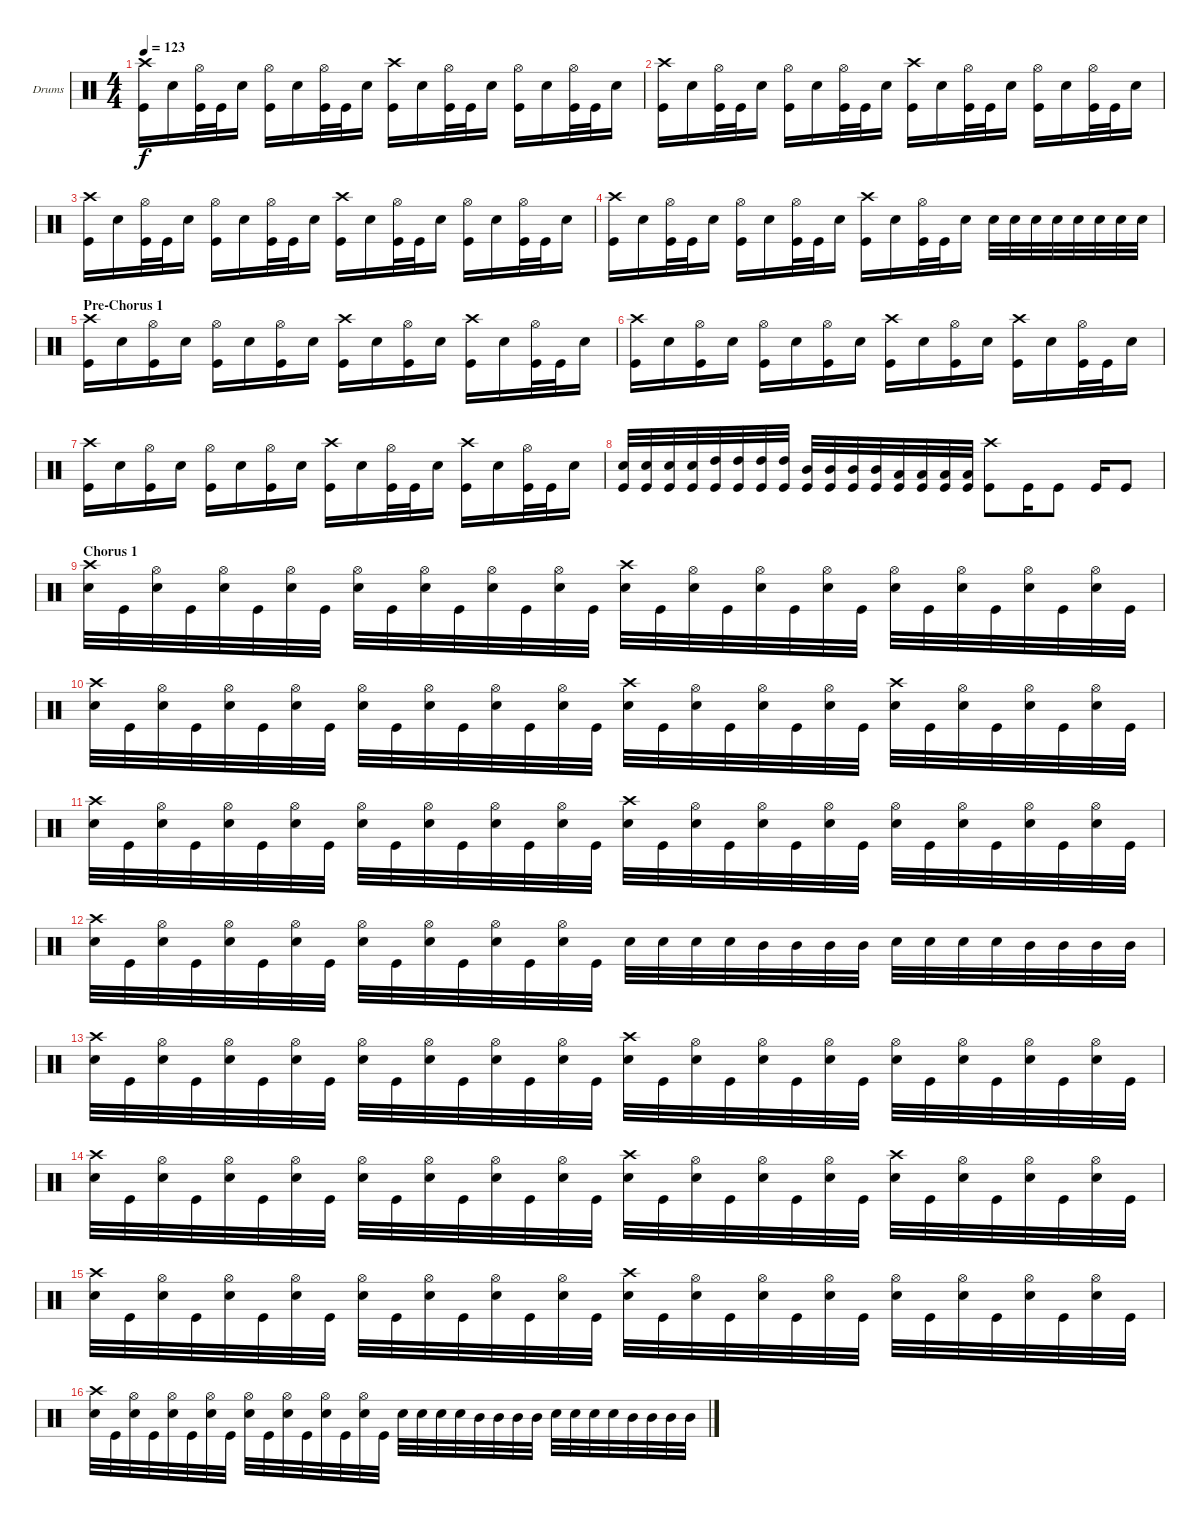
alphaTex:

\defaultSystemsLayout 4
\bracketExtendMode groupsimilarinstruments
\firstSystemTrackNameOrientation horizontal
\otherSystemsTrackNameOrientation horizontal
\track ("Drumkit" "Drums") {instrument percussion}
\staff {score}
\articulation defaults
\ts (4 4)
\tempo 123
\clef neutral
\scale
0.333333
\ks c
("Kick (hit)" "Crash high (hit)").16{dy f} "Snare (hit) 2".16 ("Kick (hit)" "Hi-Hat (open)").32 "Kick (hit)".32 "Snare (hit) 2".16 ("Kick (hit)" "Hi-Hat (open)").16 "Snare (hit) 2".16 ("Kick (hit)" "Hi-Hat (open)").32 "Kick (hit)".32 "Snare (hit) 2".16 ("Kick (hit)" "Crash high (hit)").16 "Snare (hit) 2".16 ("Kick (hit)" "Hi-Hat (open)").32 "Kick (hit)".32 "Snare (hit) 2".16 ("Kick (hit)" "Hi-Hat (open)").16 "Snare (hit) 2".16 ("Kick (hit)" "Hi-Hat (open)").32 "Kick (hit)".32 "Snare (hit) 2".16 |
\scale
0.333333 ("Kick (hit)" "Crash high (hit)").16 "Snare (hit) 2".16 ("Kick (hit)" "Hi-Hat (open)").32 "Kick (hit)".32 "Snare (hit) 2".16 ("Kick (hit)" "Hi-Hat (open)").16 "Snare (hit) 2".16 ("Kick (hit)" "Hi-Hat (open)").32 "Kick (hit)".32 "Snare (hit) 2".16 ("Kick (hit)" "Crash high (hit)").16 "Snare (hit) 2".16 ("Kick (hit)" "Hi-Hat (open)").32 "Kick (hit)".32 "Snare (hit) 2".16 ("Kick (hit)" "Hi-Hat (open)").16 "Snare (hit) 2".16 ("Kick (hit)" "Hi-Hat (open)").32 "Kick (hit)".32 "Snare (hit) 2".16 |
\scale
0.333333 ("Kick (hit)" "Crash high (hit)").16 "Snare (hit) 2".16 ("Kick (hit)" "Hi-Hat (open)").32 "Kick (hit)".32 "Snare (hit) 2".16 ("Kick (hit)" "Hi-Hat (open)").16 "Snare (hit) 2".16 ("Kick (hit)" "Hi-Hat (open)").32 "Kick (hit)".32 "Snare (hit) 2".16 ("Kick (hit)" "Crash high (hit)").16 "Snare (hit) 2".16 ("Kick (hit)" "Hi-Hat (open)").32 "Kick (hit)".32 "Snare (hit) 2".16 ("Kick (hit)" "Hi-Hat (open)").16 "Snare (hit) 2".16 ("Kick (hit)" "Hi-Hat (open)").32 "Kick (hit)".32 "Snare (hit) 2".16 |
\scale
0.333333 ("Kick (hit)" "Crash high (hit)").16 "Snare (hit) 2".16 ("Kick (hit)" "Hi-Hat (open)").32 "Kick (hit)".32 "Snare (hit) 2".16 ("Kick (hit)" "Hi-Hat (open)").16 "Snare (hit) 2".16 ("Kick (hit)" "Hi-Hat (open)").32 "Kick (hit)".32 "Snare (hit) 2".16 ("Kick (hit)" "Crash high (hit)").16 "Snare (hit) 2".16 ("Kick (hit)" "Hi-Hat (open)").32 "Kick (hit)".32 "Snare (hit) 2".16 "Snare (hit) 2".32 "Snare (hit) 2".32 "Snare (hit) 2".32 "Snare (hit) 2".32 "Snare (hit) 2".32 "Snare (hit) 2".32 "Snare (hit) 2".32 "Snare (hit) 2".32 |
\section ("" "Pre-Chorus 1")
\scale
0.333333 ("Kick (hit)" "Crash high (hit)").16 "Snare (hit) 2".16 ("Kick (hit)" "Hi-Hat (open)").16 "Snare (hit) 2".16 ("Kick (hit)" "Hi-Hat (open)").16 "Snare (hit) 2".16 ("Kick (hit)" "Hi-Hat (open)").16 "Snare (hit) 2".16 ("Kick (hit)" "Crash high (hit)").16 "Snare (hit) 2".16 ("Kick (hit)" "Hi-Hat (open)").16 "Snare (hit) 2".16 ("Kick (hit)" "Crash high (hit)").16 "Snare (hit) 2".16 ("Kick (hit)" "Hi-Hat (open)").32 "Kick (hit)".32 "Snare (hit) 2".16 |
\scale
0.333333 ("Kick (hit)" "Crash high (hit)").16 "Snare (hit) 2".16 ("Kick (hit)" "Hi-Hat (open)").16 "Snare (hit) 2".16 ("Kick (hit)" "Hi-Hat (open)").16 "Snare (hit) 2".16 ("Kick (hit)" "Hi-Hat (open)").16 "Snare (hit) 2".16 ("Kick (hit)" "Crash high (hit)").16 "Snare (hit) 2".16 ("Kick (hit)" "Hi-Hat (open)").16 "Snare (hit) 2".16 ("Kick (hit)" "Crash high (hit)").16 "Snare (hit) 2".16 ("Kick (hit)" "Hi-Hat (open)").32 "Kick (hit)".32 "Snare (hit) 2".16 |
\scale
0.333333 ("Kick (hit)" "Crash high (hit)").16 "Snare (hit) 2".16 ("Kick (hit)" "Hi-Hat (open)").16 "Snare (hit) 2".16 ("Kick (hit)" "Hi-Hat (open)").16 "Snare (hit) 2".16 ("Kick (hit)" "Hi-Hat (open)").16 "Snare (hit) 2".16 ("Kick (hit)" "Crash high (hit)").16 "Snare (hit) 2".16 ("Kick (hit)" "Hi-Hat (open)").32 "Kick (hit)".32 "Snare (hit) 2".16 ("Kick (hit)" "Crash high (hit)").16 "Snare (hit) 2".16 ("Kick (hit)" "Hi-Hat (open)").32 "Kick (hit)".32 "Snare (hit) 2".16 |
\scale
0.333333 ("Kick (hit)" "Snare (hit) 2").32 ("Kick (hit)" "Snare (hit) 2").32 ("Kick (hit)" "Snare (hit) 2").32 ("Kick (hit)" "Snare (hit) 2").32 ("Kick (hit)" "High Tom (hit)").32 ("Kick (hit)" "High Tom (hit)").32 ("Kick (hit)" "High Tom (hit)").32 ("Kick (hit)" "High Tom (hit)").32 ("Kick (hit)" "Mid Tom (hit)").32 ("Kick (hit)" "Mid Tom (hit)").32 ("Kick (hit)" "Mid Tom (hit)").32 ("Kick (hit)" "Mid Tom (hit)").32 ("Kick (hit)" "Low Tom (hit)").32 ("Kick (hit)" "Low Tom (hit)").32 ("Kick (hit)" "Low Tom (hit)").32 ("Kick (hit)" "Low Tom (hit)").32 ("Kick (hit)" "Crash high (hit)").8 "Kick (hit)".16 "Kick (hit)".8 "Kick (hit)".16 "Kick (hit)".8 |
\section ("" "Chorus 1")
\scale
0.333333 ("Snare (hit) 2" "Crash high (hit)").32 "Kick (hit)".32 ("Snare (hit) 2" "Hi-Hat (open)").32 "Kick (hit)".32 ("Snare (hit) 2" "Hi-Hat (open)").32 "Kick (hit)".32 ("Snare (hit) 2" "Hi-Hat (open)").32 "Kick (hit)".32 ("Snare (hit) 2" "Hi-Hat (open)").32 "Kick (hit)".32 ("Snare (hit) 2" "Hi-Hat (open)").32 "Kick (hit)".32 ("Snare (hit) 2" "Hi-Hat (open)").32 "Kick (hit)".32 ("Snare (hit) 2" "Hi-Hat (open)").32 "Kick (hit)".32 ("Snare (hit) 2" "Crash high (hit)").32 "Kick (hit)".32 ("Snare (hit) 2" "Hi-Hat (open)").32 "Kick (hit)".32 ("Snare (hit) 2" "Hi-Hat (open)").32 "Kick (hit)".32 ("Snare (hit) 2" "Hi-Hat (open)").32 "Kick (hit)".32 ("Snare (hit) 2" "Hi-Hat (open)").32 "Kick (hit)".32 ("Snare (hit) 2" "Hi-Hat (open)").32 "Kick (hit)".32 ("Snare (hit) 2" "Hi-Hat (open)").32 "Kick (hit)".32 ("Snare (hit) 2" "Hi-Hat (open)").32 "Kick (hit)".32 |
\scale
0.333333 ("Snare (hit) 2" "Crash high (hit)").32 "Kick (hit)".32 ("Snare (hit) 2" "Hi-Hat (open)").32 "Kick (hit)".32 ("Snare (hit) 2" "Hi-Hat (open)").32 "Kick (hit)".32 ("Snare (hit) 2" "Hi-Hat (open)").32 "Kick (hit)".32 ("Snare (hit) 2" "Hi-Hat (open)").32 "Kick (hit)".32 ("Snare (hit) 2" "Hi-Hat (open)").32 "Kick (hit)".32 ("Snare (hit) 2" "Hi-Hat (open)").32 "Kick (hit)".32 ("Snare (hit) 2" "Hi-Hat (open)").32 "Kick (hit)".32 ("Snare (hit) 2" "Crash high (hit)").32 "Kick (hit)".32 ("Snare (hit) 2" "Hi-Hat (open)").32 "Kick (hit)".32 ("Snare (hit) 2" "Hi-Hat (open)").32 "Kick (hit)".32 ("Snare (hit) 2" "Hi-Hat (open)").32 "Kick (hit)".32 ("Snare (hit) 2" "Crash high (hit)").32 "Kick (hit)".32 ("Snare (hit) 2" "Hi-Hat (open)").32 "Kick (hit)".32 ("Snare (hit) 2" "Hi-Hat (open)").32 "Kick (hit)".32 ("Snare (hit) 2" "Hi-Hat (open)").32 "Kick (hit)".32 |
\scale
0.333333 ("Snare (hit) 2" "Crash high (hit)").32 "Kick (hit)".32 ("Snare (hit) 2" "Hi-Hat (open)").32 "Kick (hit)".32 ("Snare (hit) 2" "Hi-Hat (open)").32 "Kick (hit)".32 ("Snare (hit) 2" "Hi-Hat (open)").32 "Kick (hit)".32 ("Snare (hit) 2" "Hi-Hat (open)").32 "Kick (hit)".32 ("Snare (hit) 2" "Hi-Hat (open)").32 "Kick (hit)".32 ("Snare (hit) 2" "Hi-Hat (open)").32 "Kick (hit)".32 ("Snare (hit) 2" "Hi-Hat (open)").32 "Kick (hit)".32 ("Snare (hit) 2" "Crash high (hit)").32 "Kick (hit)".32 ("Snare (hit) 2" "Hi-Hat (open)").32 "Kick (hit)".32 ("Snare (hit) 2" "Hi-Hat (open)").32 "Kick (hit)".32 ("Snare (hit) 2" "Hi-Hat (open)").32 "Kick (hit)".32 ("Snare (hit) 2" "Hi-Hat (open)").32 "Kick (hit)".32 ("Snare (hit) 2" "Hi-Hat (open)").32 "Kick (hit)".32 ("Snare (hit) 2" "Hi-Hat (open)").32 "Kick (hit)".32 ("Snare (hit) 2" "Hi-Hat (open)").32 "Kick (hit)".32 |
\scale
0.333333 ("Snare (hit) 2" "Crash high (hit)").32 "Kick (hit)".32 ("Snare (hit) 2" "Hi-Hat (open)").32 "Kick (hit)".32 ("Snare (hit) 2" "Hi-Hat (open)").32 "Kick (hit)".32 ("Snare (hit) 2" "Hi-Hat (open)").32 "Kick (hit)".32 ("Snare (hit) 2" "Hi-Hat (open)").32 "Kick (hit)".32 ("Snare (hit) 2" "Hi-Hat (open)").32 "Kick (hit)".32 ("Snare (hit) 2" "Hi-Hat (open)").32 "Kick (hit)".32 ("Snare (hit) 2" "Hi-Hat (open)").32 "Kick (hit)".32 "Snare (hit) 2".32 "Snare (hit) 2".32 "Snare (hit) 2".32 "Snare (hit) 2".32 "Mid Tom (hit)".32 "Mid Tom (hit)".32 "Mid Tom (hit)".32 "Mid Tom (hit)".32 "Snare (hit) 2".32 "Snare (hit) 2".32 "Snare (hit) 2".32 "Snare (hit) 2".32 "Mid Tom (hit)".32 "Mid Tom (hit)".32 "Mid Tom (hit)".32 "Mid Tom (hit)".32 |
\scale
0.333333 ("Snare (hit) 2" "Crash high (hit)").32 "Kick (hit)".32 ("Snare (hit) 2" "Hi-Hat (open)").32 "Kick (hit)".32 ("Snare (hit) 2" "Hi-Hat (open)").32 "Kick (hit)".32 ("Snare (hit) 2" "Hi-Hat (open)").32 "Kick (hit)".32 ("Snare (hit) 2" "Hi-Hat (open)").32 "Kick (hit)".32 ("Snare (hit) 2" "Hi-Hat (open)").32 "Kick (hit)".32 ("Snare (hit) 2" "Hi-Hat (open)").32 "Kick (hit)".32 ("Snare (hit) 2" "Hi-Hat (open)").32 "Kick (hit)".32 ("Snare (hit) 2" "Crash high (hit)").32 "Kick (hit)".32 ("Snare (hit) 2" "Hi-Hat (open)").32 "Kick (hit)".32 ("Snare (hit) 2" "Hi-Hat (open)").32 "Kick (hit)".32 ("Snare (hit) 2" "Hi-Hat (open)").32 "Kick (hit)".32 ("Snare (hit) 2" "Hi-Hat (open)").32 "Kick (hit)".32 ("Snare (hit) 2" "Hi-Hat (open)").32 "Kick (hit)".32 ("Snare (hit) 2" "Hi-Hat (open)").32 "Kick (hit)".32 ("Snare (hit) 2" "Hi-Hat (open)").32 "Kick (hit)".32 |
\scale
0.333333 ("Snare (hit) 2" "Crash high (hit)").32 "Kick (hit)".32 ("Snare (hit) 2" "Hi-Hat (open)").32 "Kick (hit)".32 ("Snare (hit) 2" "Hi-Hat (open)").32 "Kick (hit)".32 ("Snare (hit) 2" "Hi-Hat (open)").32 "Kick (hit)".32 ("Snare (hit) 2" "Hi-Hat (open)").32 "Kick (hit)".32 ("Snare (hit) 2" "Hi-Hat (open)").32 "Kick (hit)".32 ("Snare (hit) 2" "Hi-Hat (open)").32 "Kick (hit)".32 ("Snare (hit) 2" "Hi-Hat (open)").32 "Kick (hit)".32 ("Snare (hit) 2" "Crash high (hit)").32 "Kick (hit)".32 ("Snare (hit) 2" "Hi-Hat (open)").32 "Kick (hit)".32 ("Snare (hit) 2" "Hi-Hat (open)").32 "Kick (hit)".32 ("Snare (hit) 2" "Hi-Hat (open)").32 "Kick (hit)".32 ("Snare (hit) 2" "Crash high (hit)").32 "Kick (hit)".32 ("Snare (hit) 2" "Hi-Hat (open)").32 "Kick (hit)".32 ("Snare (hit) 2" "Hi-Hat (open)").32 "Kick (hit)".32 ("Snare (hit) 2" "Hi-Hat (open)").32 "Kick (hit)".32 |
\scale
0.333333 ("Snare (hit) 2" "Crash high (hit)").32 "Kick (hit)".32 ("Snare (hit) 2" "Hi-Hat (open)").32 "Kick (hit)".32 ("Snare (hit) 2" "Hi-Hat (open)").32 "Kick (hit)".32 ("Snare (hit) 2" "Hi-Hat (open)").32 "Kick (hit)".32 ("Snare (hit) 2" "Hi-Hat (open)").32 "Kick (hit)".32 ("Snare (hit) 2" "Hi-Hat (open)").32 "Kick (hit)".32 ("Snare (hit) 2" "Hi-Hat (open)").32 "Kick (hit)".32 ("Snare (hit) 2" "Hi-Hat (open)").32 "Kick (hit)".32 ("Snare (hit) 2" "Crash high (hit)").32 "Kick (hit)".32 ("Snare (hit) 2" "Hi-Hat (open)").32 "Kick (hit)".32 ("Snare (hit) 2" "Hi-Hat (open)").32 "Kick (hit)".32 ("Snare (hit) 2" "Hi-Hat (open)").32 "Kick (hit)".32 ("Snare (hit) 2" "Hi-Hat (open)").32 "Kick (hit)".32 ("Snare (hit) 2" "Hi-Hat (open)").32 "Kick (hit)".32 ("Snare (hit) 2" "Hi-Hat (open)").32 "Kick (hit)".32 ("Snare (hit) 2" "Hi-Hat (open)").32 "Kick (hit)".32 |
\scale
0.333333 ("Snare (hit) 2" "Crash high (hit)").32 "Kick (hit)".32 ("Snare (hit) 2" "Hi-Hat (open)").32 "Kick (hit)".32 ("Snare (hit) 2" "Hi-Hat (open)").32 "Kick (hit)".32 ("Snare (hit) 2" "Hi-Hat (open)").32 "Kick (hit)".32 ("Snare (hit) 2" "Hi-Hat (open)").32 "Kick (hit)".32 ("Snare (hit) 2" "Hi-Hat (open)").32 "Kick (hit)".32 ("Snare (hit) 2" "Hi-Hat (open)").32 "Kick (hit)".32 ("Snare (hit) 2" "Hi-Hat (open)").32 "Kick (hit)".32 "Snare (hit) 2".32 "Snare (hit) 2".32 "Snare (hit) 2".32 "Snare (hit) 2".32 "Mid Tom (hit)".32 "Mid Tom (hit)".32 "Mid Tom (hit)".32 "Mid Tom (hit)".32 "Snare (hit) 2".32 "Snare (hit) 2".32 "Snare (hit) 2".32 "Snare (hit) 2".32 "Mid Tom (hit)".32 "Mid Tom (hit)".32 "Mid Tom (hit)".32 "Mid Tom (hit)".32
